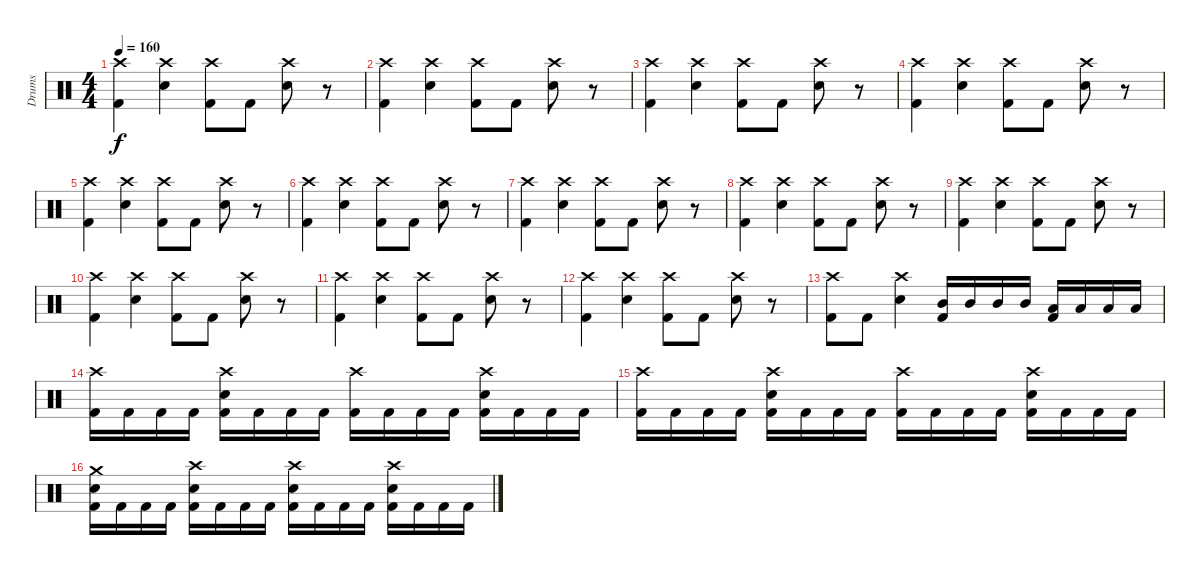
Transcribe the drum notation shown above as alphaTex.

\track ("Drums" "Drums") {instrument percussion}
\staff {score}
\articulation defaults
\ts (4 4)
\tempo 160
\clef neutral
\ks c
("Crash high (hit)" "Kick (hit) 2").4{dy f} ("Crash high (hit)" "Electric Snare (hit)").4 ("Crash high (hit)" "Kick (hit) 2").8 "Kick (hit) 2".8 ("Crash high (hit)" "Electric Snare (hit)").8 r.8 |
("Crash high (hit)" "Kick (hit) 2").4 ("Crash high (hit)" "Electric Snare (hit)").4 ("Crash high (hit)" "Kick (hit) 2").8 "Kick (hit) 2".8 ("Crash high (hit)" "Electric Snare (hit)").8 r.8 |
("Crash high (hit)" "Kick (hit) 2").4 ("Crash high (hit)" "Electric Snare (hit)").4 ("Crash high (hit)" "Kick (hit) 2").8 "Kick (hit) 2".8 ("Crash high (hit)" "Electric Snare (hit)").8 r.8 |
("Crash high (hit)" "Kick (hit) 2").4 ("Crash high (hit)" "Electric Snare (hit)").4 ("Crash high (hit)" "Kick (hit) 2").8 "Kick (hit) 2".8 ("Crash high (hit)" "Electric Snare (hit)").8 r.8 |
("Crash high (hit)" "Kick (hit) 2").4 ("Crash high (hit)" "Electric Snare (hit)").4 ("Crash high (hit)" "Kick (hit) 2").8 "Kick (hit) 2".8 ("Crash high (hit)" "Electric Snare (hit)").8 r.8 |
("Crash high (hit)" "Kick (hit) 2").4 ("Crash high (hit)" "Electric Snare (hit)").4 ("Crash high (hit)" "Kick (hit) 2").8 "Kick (hit) 2".8 ("Crash high (hit)" "Electric Snare (hit)").8 r.8 |
("Crash high (hit)" "Kick (hit) 2").4 ("Crash high (hit)" "Electric Snare (hit)").4 ("Crash high (hit)" "Kick (hit) 2").8 "Kick (hit) 2".8 ("Crash high (hit)" "Electric Snare (hit)").8 r.8 |
("Crash high (hit)" "Kick (hit) 2").4 ("Crash high (hit)" "Electric Snare (hit)").4 ("Crash high (hit)" "Kick (hit) 2").8 "Kick (hit) 2".8 ("Crash high (hit)" "Electric Snare (hit)").8 r.8 |
("Crash high (hit)" "Kick (hit) 2").4 ("Crash high (hit)" "Electric Snare (hit)").4 ("Crash high (hit)" "Kick (hit) 2").8 "Kick (hit) 2".8 ("Crash high (hit)" "Electric Snare (hit)").8 r.8 |
("Crash high (hit)" "Kick (hit) 2").4 ("Crash high (hit)" "Electric Snare (hit)").4 ("Crash high (hit)" "Kick (hit) 2").8 "Kick (hit) 2".8 ("Crash high (hit)" "Electric Snare (hit)").8 r.8 |
("Crash high (hit)" "Kick (hit) 2").4 ("Crash high (hit)" "Electric Snare (hit)").4 ("Crash high (hit)" "Kick (hit) 2").8 "Kick (hit) 2".8 ("Crash high (hit)" "Electric Snare (hit)").8 r.8 |
("Crash high (hit)" "Kick (hit) 2").4 ("Crash high (hit)" "Electric Snare (hit)").4 ("Crash high (hit)" "Kick (hit) 2").8 "Kick (hit) 2".8 ("Crash high (hit)" "Electric Snare (hit)").8 r.8 |
("Crash high (hit)" "Kick (hit) 2").8 "Kick (hit) 2".8 ("Crash high (hit)" "Electric Snare (hit)").4 ("Mid Tom (hit)" "Kick (hit) 2").16 "Mid Tom (hit)".16 "Mid Tom (hit)".16 "Mid Tom (hit)".16 ("Low Tom (hit)" "Kick (hit) 2").16 "Low Tom (hit)".16 "Low Tom (hit)".16 "Low Tom (hit)".16 |
("Crash high (hit)" "Kick (hit) 2").16 "Kick (hit) 2".16 "Kick (hit) 2".16 "Kick (hit) 2".16 ("Crash high (hit)" "Electric Snare (hit)" "Kick (hit) 2").16 "Kick (hit) 2".16 "Kick (hit) 2".16 "Kick (hit) 2".16 ("Crash high (hit)" "Kick (hit) 2").16 "Kick (hit) 2".16 "Kick (hit) 2".16 "Kick (hit) 2".16 ("Crash high (hit)" "Electric Snare (hit)" "Kick (hit) 2").16 "Kick (hit) 2".16 "Kick (hit) 2".16 "Kick (hit) 2".16 |
("Crash high (hit)" "Kick (hit) 2").16 "Kick (hit) 2".16 "Kick (hit) 2".16 "Kick (hit) 2".16 ("Crash high (hit)" "Electric Snare (hit)" "Kick (hit) 2").16 "Kick (hit) 2".16 "Kick (hit) 2".16 "Kick (hit) 2".16 ("Crash high (hit)" "Kick (hit) 2").16 "Kick (hit) 2".16 "Kick (hit) 2".16 "Kick (hit) 2".16 ("Crash high (hit)" "Electric Snare (hit)" "Kick (hit) 2").16 "Kick (hit) 2".16 "Kick (hit) 2".16 "Kick (hit) 2".16 |
("Crash medium (hit)" "Electric Snare (hit)" "Kick (hit) 2").16 "Kick (hit) 2".16 "Kick (hit) 2".16 "Kick (hit) 2".16 ("Crash high (hit)" "Electric Snare (hit)" "Kick (hit) 2").16 "Kick (hit) 2".16 "Kick (hit) 2".16 "Kick (hit) 2".16 ("Crash high (hit)" "Electric Snare (hit)" "Kick (hit) 2").16 "Kick (hit) 2".16 "Kick (hit) 2".16 "Kick (hit) 2".16 ("Crash high (hit)" "Electric Snare (hit)" "Kick (hit) 2").16 "Kick (hit) 2".16 "Kick (hit) 2".16 "Kick (hit) 2".16
